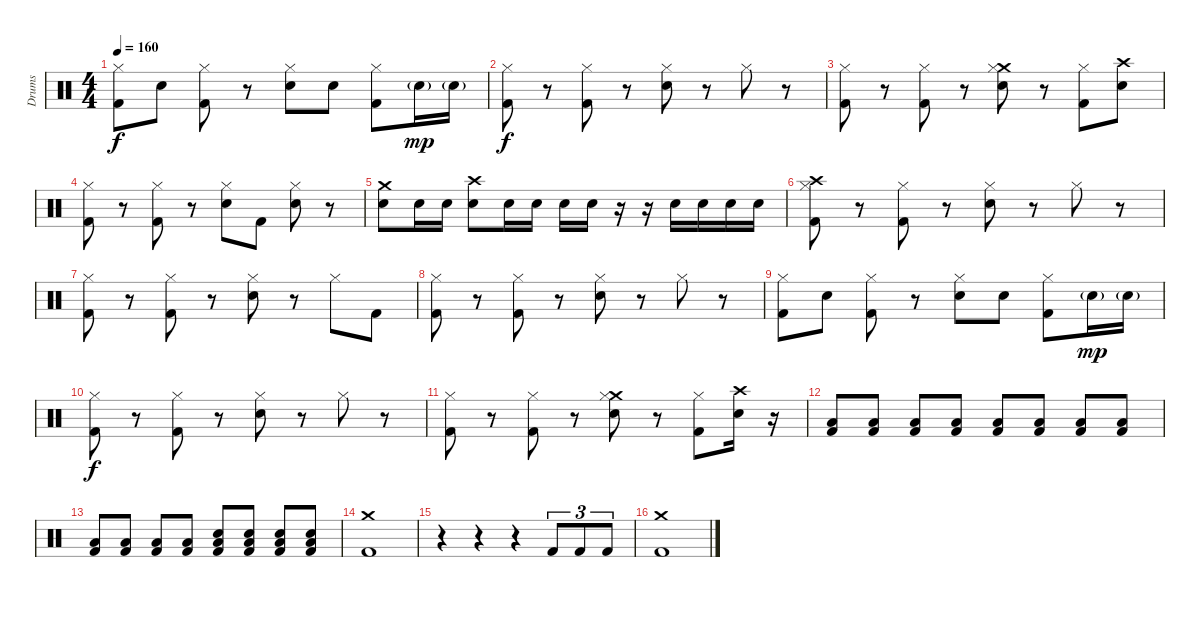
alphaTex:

\track ("Drums" "Drums") {instrument percussion}
\staff {score}
\articulation defaults
\ts (4 4)
\tempo 160
\clef neutral
\ks c
("Hi-Hat (closed)" "Kick (hit) 2").8{dy f} "Electric Snare (hit)".8 ("Hi-Hat (closed)" "Kick (hit) 2").8 r.8 ("Hi-Hat (closed)" "Electric Snare (hit)").8 "Electric Snare (hit)".8 ("Hi-Hat (closed)" "Kick (hit) 2").8 "Electric Snare (hit)"{g}.16{dy mp} "Electric Snare (hit)"{g}.16 |
("Hi-Hat (closed)" "Kick (hit) 2").8{dy f} r.8 ("Hi-Hat (closed)" "Kick (hit) 2").8 r.8 ("Hi-Hat (closed)" "Electric Snare (hit)").8 r.8 "Hi-Hat (closed)".8 r.8 |
("Hi-Hat (closed)" "Kick (hit) 2").8 r.8 ("Hi-Hat (closed)" "Kick (hit) 2").8 r.8 ("Crash medium (hit)" "Hi-Hat (closed)" "Electric Snare (hit)").8 r.8 ("Hi-Hat (closed)" "Kick (hit) 2").8 ("Crash high (hit)" "Electric Snare (hit)").8 |
("Hi-Hat (closed)" "Kick (hit) 2").8 r.8 ("Hi-Hat (closed)" "Kick (hit) 2").8 r.8 ("Hi-Hat (closed)" "Electric Snare (hit)").8 "Kick (hit) 2".8 ("Hi-Hat (closed)" "Electric Snare (hit)").8 r.8 |
("Crash medium (hit)" "Electric Snare (hit)").8 "Electric Snare (hit)".16 "Electric Snare (hit)".16 ("Crash high (hit)" "Electric Snare (hit)").8 "Electric Snare (hit)".16 "Electric Snare (hit)".16 "Electric Snare (hit)".16 "Electric Snare (hit)".16 r.16 r.16 "Electric Snare (hit)".16 "Electric Snare (hit)".16 "Electric Snare (hit)".16 "Electric Snare (hit)".16 |
("Crash high (hit)" "Hi-Hat (closed)" "Kick (hit) 2").8 r.8 ("Hi-Hat (closed)" "Kick (hit) 2").8 r.8 ("Hi-Hat (closed)" "Electric Snare (hit)").8 r.8 "Hi-Hat (closed)".8 r.8 |
("Hi-Hat (closed)" "Kick (hit) 2").8 r.8 ("Hi-Hat (closed)" "Kick (hit) 2").8 r.8 ("Hi-Hat (closed)" "Electric Snare (hit)").8 r.8 "Hi-Hat (closed)".8 "Kick (hit) 2".8 |
("Hi-Hat (closed)" "Kick (hit) 2").8 r.8 ("Hi-Hat (closed)" "Kick (hit) 2").8 r.8 ("Hi-Hat (closed)" "Electric Snare (hit)").8 r.8 "Hi-Hat (closed)".8 r.8 |
("Hi-Hat (closed)" "Kick (hit) 2").8 "Electric Snare (hit)".8 ("Hi-Hat (closed)" "Kick (hit) 2").8 r.8 ("Hi-Hat (closed)" "Electric Snare (hit)").8 "Electric Snare (hit)".8 ("Hi-Hat (closed)" "Kick (hit) 2").8 "Electric Snare (hit)"{g}.16{dy mp} "Electric Snare (hit)"{g}.16 |
("Hi-Hat (closed)" "Kick (hit) 2").8{dy f} r.8 ("Hi-Hat (closed)" "Kick (hit) 2").8 r.8 ("Hi-Hat (closed)" "Electric Snare (hit)").8 r.8 "Hi-Hat (closed)".8 r.8 |
("Hi-Hat (closed)" "Kick (hit) 2").8 r.8 ("Hi-Hat (closed)" "Kick (hit) 2").8 r.8 ("Crash medium (hit)" "Hi-Hat (closed)" "Electric Snare (hit)").8 r.8 ("Hi-Hat (closed)" "Kick (hit) 2").8 ("Crash high (hit)" "Electric Snare (hit)").16 r.16{volume 3} |
("Low Floor Tom (hit)" "Kick (hit) 2").8{volume 16} ("Low Floor Tom (hit)" "Kick (hit) 2").8 ("Low Floor Tom (hit)" "Kick (hit) 2").8 ("Low Floor Tom (hit)" "Kick (hit) 2").8 ("Low Floor Tom (hit)" "Kick (hit) 2").8 ("Low Floor Tom (hit)" "Kick (hit) 2").8 ("Low Floor Tom (hit)" "Kick (hit) 2").8 ("Low Floor Tom (hit)" "Kick (hit) 2").8 |
("Low Floor Tom (hit)" "Kick (hit) 2").8 ("Low Floor Tom (hit)" "Kick (hit) 2").8 ("Low Floor Tom (hit)" "Kick (hit) 2").8 ("Low Floor Tom (hit)" "Kick (hit) 2").8 ("Electric Snare (hit)" "Low Floor Tom (hit)" "Kick (hit) 2").8 ("Electric Snare (hit)" "Low Floor Tom (hit)" "Kick (hit) 2").8 ("Electric Snare (hit)" "Low Floor Tom (hit)" "Kick (hit) 2").8 ("Electric Snare (hit)" "Low Floor Tom (hit)" "Kick (hit) 2").8 |
("Crash medium (hit)" "Kick (hit) 2").1{volume 15} |
r.4 r.4 r.4 "Kick (hit) 2".8{tu (3 2)} "Kick (hit) 2".8{tu (3 2)} "Kick (hit) 2".8{tu (3 2)} |
("Crash medium (hit)" "Kick (hit) 2").1
